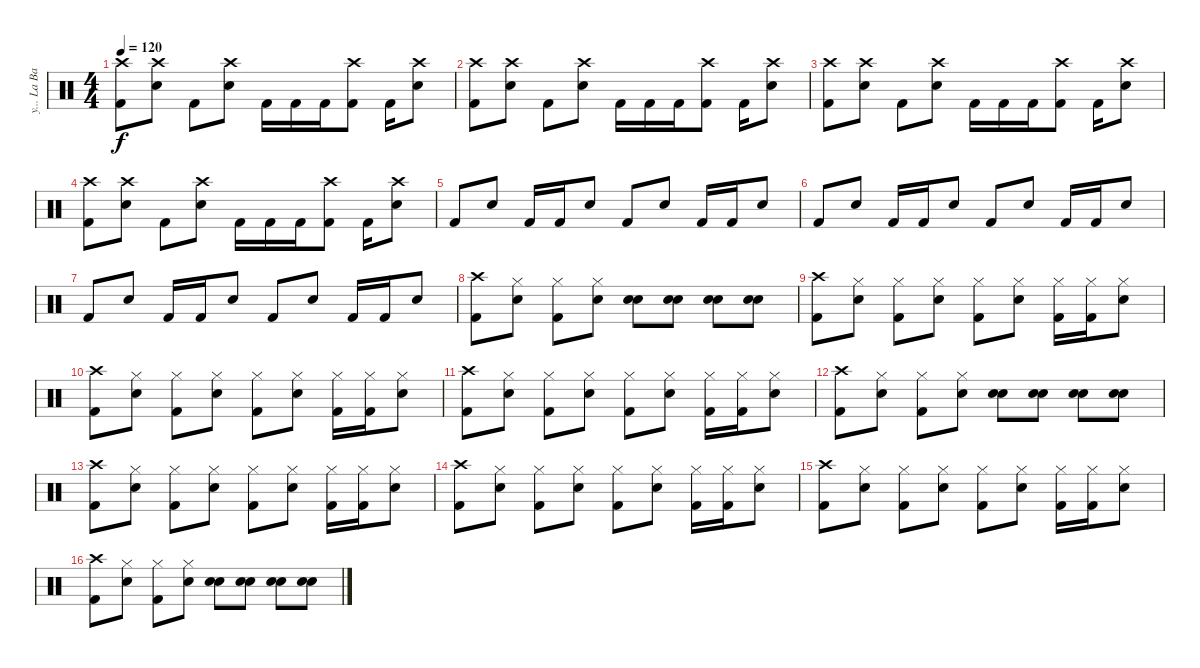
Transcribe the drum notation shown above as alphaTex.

\track ("y... La Bataka" "y... La Ba") {instrument percussion}
\staff {score}
\articulation defaults
\ts (4 4)
\tempo 120
\clef neutral
\ks c
("Crash high (hit)" "Kick (hit) 2").8{dy f} ("Crash high (hit)" "Snare (hit) 2").8 "Kick (hit) 2".8 ("Crash high (hit)" "Snare (hit) 2").8 "Kick (hit) 2".16 "Kick (hit) 2".16 "Kick (hit) 2".16 ("Crash high (hit)" "Kick (hit) 2").8 "Kick (hit) 2".16 ("Crash high (hit)" "Snare (hit) 2").8 |
("Crash high (hit)" "Kick (hit) 2").8 ("Crash high (hit)" "Snare (hit) 2").8 "Kick (hit) 2".8 ("Crash high (hit)" "Snare (hit) 2").8 "Kick (hit) 2".16 "Kick (hit) 2".16 "Kick (hit) 2".16 ("Crash high (hit)" "Kick (hit) 2").8 "Kick (hit) 2".16 ("Crash high (hit)" "Snare (hit) 2").8 |
("Crash high (hit)" "Kick (hit) 2").8 ("Crash high (hit)" "Snare (hit) 2").8 "Kick (hit) 2".8 ("Crash high (hit)" "Snare (hit) 2").8 "Kick (hit) 2".16 "Kick (hit) 2".16 "Kick (hit) 2".16 ("Crash high (hit)" "Kick (hit) 2").8 "Kick (hit) 2".16 ("Crash high (hit)" "Snare (hit) 2").8 |
("Crash high (hit)" "Kick (hit) 2").8 ("Crash high (hit)" "Snare (hit) 2").8 "Kick (hit) 2".8 ("Crash high (hit)" "Snare (hit) 2").8 "Kick (hit) 2".16 "Kick (hit) 2".16 "Kick (hit) 2".16 ("Crash high (hit)" "Kick (hit) 2").8 "Kick (hit) 2".16 ("Crash high (hit)" "Snare (hit) 2").8 |
"Kick (hit) 2".8 "Snare (hit) 2".8 "Kick (hit) 2".16 "Kick (hit) 2".16 "Snare (hit) 2".8 "Kick (hit) 2".8 "Snare (hit) 2".8 "Kick (hit) 2".16 "Kick (hit) 2".16 "Snare (hit) 2".8 |
"Kick (hit) 2".8 "Snare (hit) 2".8 "Kick (hit) 2".16 "Kick (hit) 2".16 "Snare (hit) 2".8 "Kick (hit) 2".8 "Snare (hit) 2".8 "Kick (hit) 2".16 "Kick (hit) 2".16 "Snare (hit) 2".8 |
"Kick (hit) 2".8 "Snare (hit) 2".8 "Kick (hit) 2".16 "Kick (hit) 2".16 "Snare (hit) 2".8 "Kick (hit) 2".8 "Snare (hit) 2".8 "Kick (hit) 2".16 "Kick (hit) 2".16 "Snare (hit) 2".8 |
("Crash high (hit)" "Kick (hit) 2").8 ("Hi-Hat (closed)" "Snare (hit) 2").8 ("Hi-Hat (closed)" "Kick (hit) 2").8 ("Hi-Hat (closed)" "Snare (hit) 2").8 ("Snare (hit) 2" "Snare (hit) 2").8 ("Snare (hit) 2" "Snare (hit) 2").8 ("Snare (hit) 2" "Snare (hit) 2").8 ("Snare (hit) 2" "Snare (hit) 2").8 |
("Crash high (hit)" "Kick (hit) 2").8 ("Hi-Hat (closed)" "Snare (hit) 2").8 ("Hi-Hat (closed)" "Kick (hit) 2").8 ("Hi-Hat (closed)" "Snare (hit) 2").8 ("Hi-Hat (closed)" "Kick (hit) 2").8 ("Hi-Hat (closed)" "Snare (hit) 2").8 ("Hi-Hat (closed)" "Kick (hit) 2").16 ("Hi-Hat (closed)" "Kick (hit) 2").16 ("Hi-Hat (closed)" "Snare (hit) 2").8 |
("Crash high (hit)" "Kick (hit) 2").8 ("Hi-Hat (closed)" "Snare (hit) 2").8 ("Hi-Hat (closed)" "Kick (hit) 2").8 ("Hi-Hat (closed)" "Snare (hit) 2").8 ("Hi-Hat (closed)" "Kick (hit) 2").8 ("Hi-Hat (closed)" "Snare (hit) 2").8 ("Hi-Hat (closed)" "Kick (hit) 2").16 ("Hi-Hat (closed)" "Kick (hit) 2").16 ("Hi-Hat (closed)" "Snare (hit) 2").8 |
("Crash high (hit)" "Kick (hit) 2").8 ("Hi-Hat (closed)" "Snare (hit) 2").8 ("Hi-Hat (closed)" "Kick (hit) 2").8 ("Hi-Hat (closed)" "Snare (hit) 2").8 ("Hi-Hat (closed)" "Kick (hit) 2").8 ("Hi-Hat (closed)" "Snare (hit) 2").8 ("Hi-Hat (closed)" "Kick (hit) 2").16 ("Hi-Hat (closed)" "Kick (hit) 2").16 ("Hi-Hat (closed)" "Snare (hit) 2").8 |
("Crash high (hit)" "Kick (hit) 2").8 ("Hi-Hat (closed)" "Snare (hit) 2").8 ("Hi-Hat (closed)" "Kick (hit) 2").8 ("Hi-Hat (closed)" "Snare (hit) 2").8 ("Snare (hit) 2" "Snare (hit) 2").8 ("Snare (hit) 2" "Snare (hit) 2").8 ("Snare (hit) 2" "Snare (hit) 2").8 ("Snare (hit) 2" "Snare (hit) 2").8 |
("Crash high (hit)" "Kick (hit) 2").8 ("Hi-Hat (closed)" "Snare (hit) 2").8 ("Hi-Hat (closed)" "Kick (hit) 2").8 ("Hi-Hat (closed)" "Snare (hit) 2").8 ("Hi-Hat (closed)" "Kick (hit) 2").8 ("Hi-Hat (closed)" "Snare (hit) 2").8 ("Hi-Hat (closed)" "Kick (hit) 2").16 ("Hi-Hat (closed)" "Kick (hit) 2").16 ("Hi-Hat (closed)" "Snare (hit) 2").8 |
("Crash high (hit)" "Kick (hit) 2").8 ("Hi-Hat (closed)" "Snare (hit) 2").8 ("Hi-Hat (closed)" "Kick (hit) 2").8 ("Hi-Hat (closed)" "Snare (hit) 2").8 ("Hi-Hat (closed)" "Kick (hit) 2").8 ("Hi-Hat (closed)" "Snare (hit) 2").8 ("Hi-Hat (closed)" "Kick (hit) 2").16 ("Hi-Hat (closed)" "Kick (hit) 2").16 ("Hi-Hat (closed)" "Snare (hit) 2").8 |
("Crash high (hit)" "Kick (hit) 2").8 ("Hi-Hat (closed)" "Snare (hit) 2").8 ("Hi-Hat (closed)" "Kick (hit) 2").8 ("Hi-Hat (closed)" "Snare (hit) 2").8 ("Hi-Hat (closed)" "Kick (hit) 2").8 ("Hi-Hat (closed)" "Snare (hit) 2").8 ("Hi-Hat (closed)" "Kick (hit) 2").16 ("Hi-Hat (closed)" "Kick (hit) 2").16 ("Hi-Hat (closed)" "Snare (hit) 2").8 |
("Crash high (hit)" "Kick (hit) 2").8 ("Hi-Hat (closed)" "Snare (hit) 2").8 ("Hi-Hat (closed)" "Kick (hit) 2").8 ("Hi-Hat (closed)" "Snare (hit) 2").8 ("Snare (hit) 2" "Snare (hit) 2").8 ("Snare (hit) 2" "Snare (hit) 2").8 ("Snare (hit) 2" "Snare (hit) 2").8 ("Snare (hit) 2" "Snare (hit) 2").8
